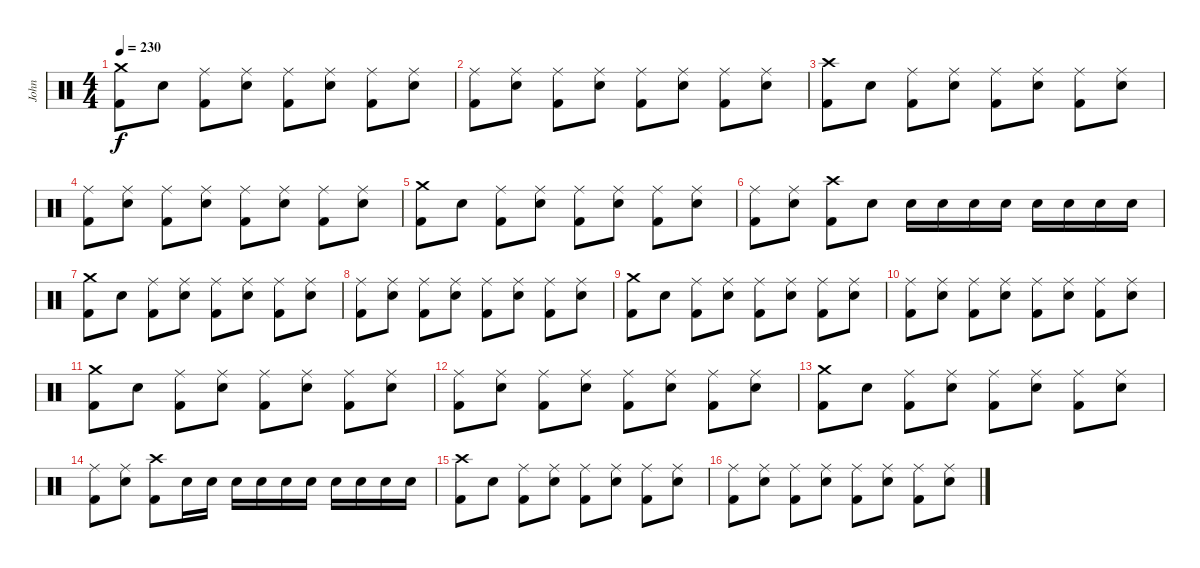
\track ("John" "John") {instrument percussion}
\staff {score}
\articulation defaults
\ts (4 4)
\tempo 230
\clef neutral
\ks c
("Crash medium (hit)" "Kick (hit) 2").8{dy f} "Electric Snare (hit)".8 ("Ride (middle)" "Kick (hit) 2").8 ("Ride (middle)" "Electric Snare (hit)").8 ("Ride (middle)" "Kick (hit) 2").8 ("Ride (middle)" "Electric Snare (hit)").8 ("Ride (middle)" "Kick (hit) 2").8 ("Ride (middle)" "Electric Snare (hit)").8 |
("Ride (middle)" "Kick (hit) 2").8 ("Ride (middle)" "Electric Snare (hit)").8 ("Ride (middle)" "Kick (hit) 2").8 ("Ride (middle)" "Electric Snare (hit)").8 ("Ride (middle)" "Kick (hit) 2").8 ("Ride (middle)" "Electric Snare (hit)").8 ("Ride (middle)" "Kick (hit) 2").8 ("Ride (middle)" "Electric Snare (hit)").8 |
("Crash high (hit)" "Kick (hit) 2").8 "Electric Snare (hit)".8 ("Ride (middle)" "Kick (hit) 2").8 ("Ride (middle)" "Electric Snare (hit)").8 ("Ride (middle)" "Kick (hit) 2").8 ("Ride (middle)" "Electric Snare (hit)").8 ("Ride (middle)" "Kick (hit) 2").8 ("Ride (middle)" "Electric Snare (hit)").8 |
("Ride (middle)" "Kick (hit) 2").8 ("Ride (middle)" "Electric Snare (hit)").8 ("Ride (middle)" "Kick (hit) 2").8 ("Ride (middle)" "Electric Snare (hit)").8 ("Ride (middle)" "Kick (hit) 2").8 ("Ride (middle)" "Electric Snare (hit)").8 ("Ride (middle)" "Kick (hit) 2").8 ("Ride (middle)" "Electric Snare (hit)").8 |
("Crash medium (hit)" "Kick (hit) 2").8 "Electric Snare (hit)".8 ("Ride (middle)" "Kick (hit) 2").8 ("Ride (middle)" "Electric Snare (hit)").8 ("Ride (middle)" "Kick (hit) 2").8 ("Ride (middle)" "Electric Snare (hit)").8 ("Ride (middle)" "Kick (hit) 2").8 ("Ride (middle)" "Electric Snare (hit)").8 |
("Ride (middle)" "Kick (hit) 2").8 ("Ride (middle)" "Electric Snare (hit)").8 ("Crash high (hit)" "Kick (hit) 2").8 "Electric Snare (hit)".8 "Electric Snare (hit)".16 "Electric Snare (hit)".16 "Electric Snare (hit)".16 "Electric Snare (hit)".16 "Electric Snare (hit)".16 "Electric Snare (hit)".16 "Electric Snare (hit)".16 "Electric Snare (hit)".16 |
("Crash medium (hit)" "Kick (hit) 2").8 "Electric Snare (hit)".8 ("Ride (middle)" "Kick (hit) 2").8 ("Ride (middle)" "Electric Snare (hit)").8 ("Ride (middle)" "Kick (hit) 2").8 ("Ride (middle)" "Electric Snare (hit)").8 ("Ride (middle)" "Kick (hit) 2").8 ("Ride (middle)" "Electric Snare (hit)").8 |
("Ride (middle)" "Kick (hit) 2").8 ("Ride (middle)" "Electric Snare (hit)").8 ("Ride (middle)" "Kick (hit) 2").8 ("Ride (middle)" "Electric Snare (hit)").8 ("Ride (middle)" "Kick (hit) 2").8 ("Ride (middle)" "Electric Snare (hit)").8 ("Ride (middle)" "Kick (hit) 2").8 ("Ride (middle)" "Electric Snare (hit)").8 |
("Crash medium (hit)" "Kick (hit) 2").8 "Electric Snare (hit)".8 ("Ride (middle)" "Kick (hit) 2").8 ("Ride (middle)" "Electric Snare (hit)").8 ("Ride (middle)" "Kick (hit) 2").8 ("Ride (middle)" "Electric Snare (hit)").8 ("Ride (middle)" "Kick (hit) 2").8 ("Ride (middle)" "Electric Snare (hit)").8 |
("Ride (middle)" "Kick (hit) 2").8 ("Ride (middle)" "Electric Snare (hit)").8 ("Ride (middle)" "Kick (hit) 2").8 ("Ride (middle)" "Electric Snare (hit)").8 ("Ride (middle)" "Kick (hit) 2").8 ("Ride (middle)" "Electric Snare (hit)").8 ("Ride (middle)" "Kick (hit) 2").8 ("Ride (middle)" "Electric Snare (hit)").8 |
("Crash medium (hit)" "Kick (hit) 2").8 "Electric Snare (hit)".8 ("Ride (middle)" "Kick (hit) 2").8 ("Ride (middle)" "Electric Snare (hit)").8 ("Ride (middle)" "Kick (hit) 2").8 ("Ride (middle)" "Electric Snare (hit)").8 ("Ride (middle)" "Kick (hit) 2").8 ("Ride (middle)" "Electric Snare (hit)").8 |
("Ride (middle)" "Kick (hit) 2").8 ("Ride (middle)" "Electric Snare (hit)").8 ("Ride (middle)" "Kick (hit) 2").8 ("Ride (middle)" "Electric Snare (hit)").8 ("Ride (middle)" "Kick (hit) 2").8 ("Ride (middle)" "Electric Snare (hit)").8 ("Ride (middle)" "Kick (hit) 2").8 ("Ride (middle)" "Electric Snare (hit)").8 |
("Crash medium (hit)" "Kick (hit) 2").8 "Electric Snare (hit)".8 ("Ride (middle)" "Kick (hit) 2").8 ("Ride (middle)" "Electric Snare (hit)").8 ("Ride (middle)" "Kick (hit) 2").8 ("Ride (middle)" "Electric Snare (hit)").8 ("Ride (middle)" "Kick (hit) 2").8 ("Ride (middle)" "Electric Snare (hit)").8 |
("Ride (middle)" "Kick (hit) 2").8 ("Ride (middle)" "Electric Snare (hit)").8 ("Crash high (hit)" "Kick (hit) 2").8 "Electric Snare (hit)".16 "Electric Snare (hit)".16 "Electric Snare (hit)".16 "Electric Snare (hit)".16 "Electric Snare (hit)".16 "Electric Snare (hit)".16 "Electric Snare (hit)".16 "Electric Snare (hit)".16 "Electric Snare (hit)".16 "Electric Snare (hit)".16 |
("Crash high (hit)" "Kick (hit) 2").8 "Electric Snare (hit)".8 ("Ride (middle)" "Kick (hit) 2").8 ("Ride (middle)" "Electric Snare (hit)").8 ("Ride (middle)" "Kick (hit) 2").8 ("Ride (middle)" "Electric Snare (hit)").8 ("Ride (middle)" "Kick (hit) 2").8 ("Ride (middle)" "Electric Snare (hit)").8 |
("Ride (middle)" "Kick (hit) 2").8 ("Ride (middle)" "Electric Snare (hit)").8 ("Ride (middle)" "Kick (hit) 2").8 ("Ride (middle)" "Electric Snare (hit)").8 ("Ride (middle)" "Kick (hit) 2").8 ("Ride (middle)" "Electric Snare (hit)").8 ("Ride (middle)" "Kick (hit) 2").8 ("Ride (middle)" "Electric Snare (hit)").8
